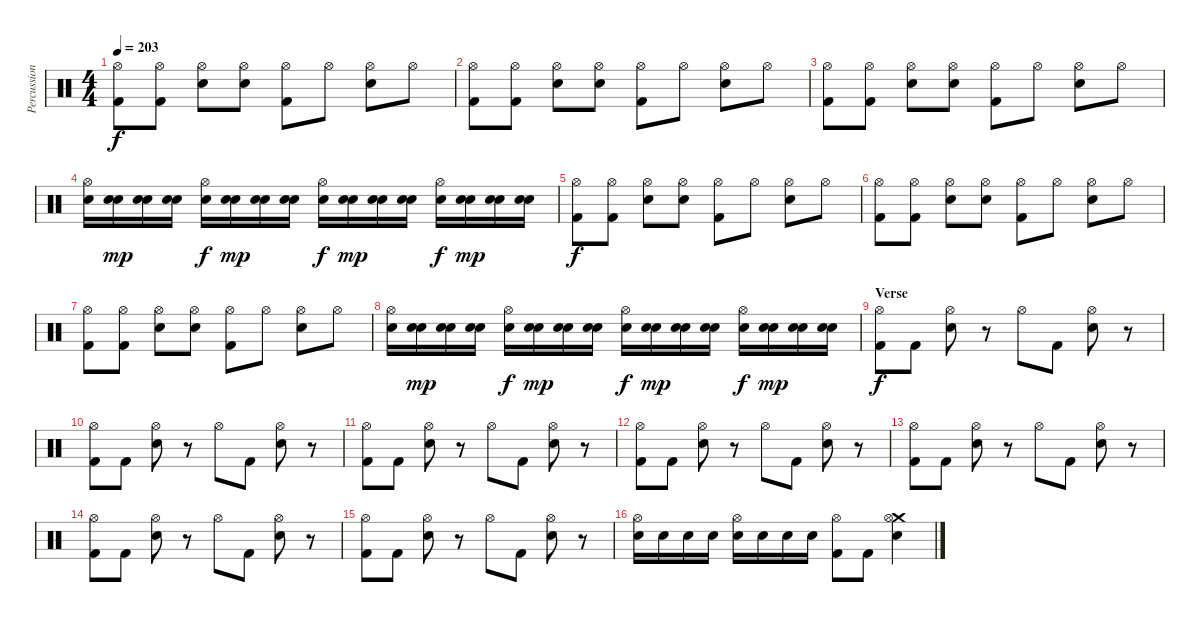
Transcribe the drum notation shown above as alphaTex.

\track ("Percussion" "Percussion") {instrument percussion}
\staff {score}
\articulation defaults
\ts (4 4)
\tempo 203
\clef neutral
\ks c
("Hi-Hat (open)" "Kick (hit) 2").8{dy f} ("Hi-Hat (open)" "Kick (hit) 2").8 ("Hi-Hat (open)" "Electric Snare (hit)").8 ("Hi-Hat (open)" "Electric Snare (hit)").8 ("Hi-Hat (open)" "Kick (hit) 2").8 "Hi-Hat (open)".8 ("Hi-Hat (open)" "Electric Snare (hit)").8 "Hi-Hat (open)".8 |
("Hi-Hat (open)" "Kick (hit) 2").8 ("Hi-Hat (open)" "Kick (hit) 2").8 ("Hi-Hat (open)" "Electric Snare (hit)").8 ("Hi-Hat (open)" "Electric Snare (hit)").8 ("Hi-Hat (open)" "Kick (hit) 2").8 "Hi-Hat (open)".8 ("Hi-Hat (open)" "Electric Snare (hit)").8 "Hi-Hat (open)".8 |
("Hi-Hat (open)" "Kick (hit) 2").8 ("Hi-Hat (open)" "Kick (hit) 2").8 ("Hi-Hat (open)" "Electric Snare (hit)").8 ("Hi-Hat (open)" "Electric Snare (hit)").8 ("Hi-Hat (open)" "Kick (hit) 2").8 "Hi-Hat (open)".8 ("Hi-Hat (open)" "Electric Snare (hit)").8 "Hi-Hat (open)".8 |
("Hi-Hat (open)" "Electric Snare (hit)").16 ("Snare (hit) 2" "Electric Snare (hit)").16{dy mp} ("Snare (hit) 2" "Electric Snare (hit)").16 ("Snare (hit) 2" "Electric Snare (hit)").16 ("Hi-Hat (open)" "Electric Snare (hit)").16{dy f} ("Electric Snare (hit)" "Snare (hit) 2").16{dy mp} ("Electric Snare (hit)" "Snare (hit) 2").16 ("Electric Snare (hit)" "Snare (hit) 2").16 ("Hi-Hat (open)" "Electric Snare (hit)").16{dy f} ("Electric Snare (hit)" "Snare (hit) 2").16{dy mp} ("Electric Snare (hit)" "Snare (hit) 2").16 ("Electric Snare (hit)" "Snare (hit) 2").16 ("Hi-Hat (open)" "Electric Snare (hit)").16{dy f} ("Electric Snare (hit)" "Snare (hit) 2").16{dy mp} ("Electric Snare (hit)" "Snare (hit) 2").16 ("Electric Snare (hit)" "Snare (hit) 2").16 |
("Hi-Hat (open)" "Kick (hit) 2").8{dy f} ("Hi-Hat (open)" "Kick (hit) 2").8 ("Hi-Hat (open)" "Electric Snare (hit)").8 ("Hi-Hat (open)" "Electric Snare (hit)").8 ("Hi-Hat (open)" "Kick (hit) 2").8 "Hi-Hat (open)".8 ("Hi-Hat (open)" "Electric Snare (hit)").8 "Hi-Hat (open)".8 |
("Hi-Hat (open)" "Kick (hit) 2").8 ("Hi-Hat (open)" "Kick (hit) 2").8 ("Hi-Hat (open)" "Electric Snare (hit)").8 ("Hi-Hat (open)" "Electric Snare (hit)").8 ("Hi-Hat (open)" "Kick (hit) 2").8 "Hi-Hat (open)".8 ("Hi-Hat (open)" "Electric Snare (hit)").8 "Hi-Hat (open)".8 |
("Hi-Hat (open)" "Kick (hit) 2").8 ("Hi-Hat (open)" "Kick (hit) 2").8 ("Hi-Hat (open)" "Electric Snare (hit)").8 ("Hi-Hat (open)" "Electric Snare (hit)").8 ("Hi-Hat (open)" "Kick (hit) 2").8 "Hi-Hat (open)".8 ("Hi-Hat (open)" "Electric Snare (hit)").8 "Hi-Hat (open)".8 |
("Hi-Hat (open)" "Electric Snare (hit)").16 ("Snare (hit) 2" "Electric Snare (hit)").16{dy mp} ("Snare (hit) 2" "Electric Snare (hit)").16 ("Snare (hit) 2" "Electric Snare (hit)").16 ("Hi-Hat (open)" "Electric Snare (hit)").16{dy f} ("Electric Snare (hit)" "Snare (hit) 2").16{dy mp} ("Electric Snare (hit)" "Snare (hit) 2").16 ("Electric Snare (hit)" "Snare (hit) 2").16 ("Hi-Hat (open)" "Electric Snare (hit)").16{dy f} ("Electric Snare (hit)" "Snare (hit) 2").16{dy mp} ("Electric Snare (hit)" "Snare (hit) 2").16 ("Electric Snare (hit)" "Snare (hit) 2").16 ("Hi-Hat (open)" "Electric Snare (hit)").16{dy f} ("Electric Snare (hit)" "Snare (hit) 2").16{dy mp} ("Electric Snare (hit)" "Snare (hit) 2").16 ("Electric Snare (hit)" "Snare (hit) 2").16 |
\section ("" "Verse")
("Hi-Hat (open)" "Kick (hit) 2").8{dy f} "Kick (hit) 2".8 ("Hi-Hat (open)" "Electric Snare (hit)").8 r.8 "Hi-Hat (open)".8 "Kick (hit) 2".8 ("Hi-Hat (open)" "Electric Snare (hit)").8 r.8 |
("Hi-Hat (open)" "Kick (hit) 2").8 "Kick (hit) 2".8 ("Hi-Hat (open)" "Electric Snare (hit)").8 r.8 "Hi-Hat (open)".8 "Kick (hit) 2".8 ("Hi-Hat (open)" "Electric Snare (hit)").8 r.8 |
("Hi-Hat (open)" "Kick (hit) 2").8 "Kick (hit) 2".8 ("Hi-Hat (open)" "Electric Snare (hit)").8 r.8 "Hi-Hat (open)".8 "Kick (hit) 2".8 ("Hi-Hat (open)" "Electric Snare (hit)").8 r.8 |
("Hi-Hat (open)" "Kick (hit) 2").8 "Kick (hit) 2".8 ("Hi-Hat (open)" "Electric Snare (hit)").8 r.8 "Hi-Hat (open)".8 "Kick (hit) 2".8 ("Hi-Hat (open)" "Electric Snare (hit)").8 r.8 |
("Hi-Hat (open)" "Kick (hit) 2").8 "Kick (hit) 2".8 ("Hi-Hat (open)" "Electric Snare (hit)").8 r.8 "Hi-Hat (open)".8 "Kick (hit) 2".8 ("Hi-Hat (open)" "Electric Snare (hit)").8 r.8 |
("Hi-Hat (open)" "Kick (hit) 2").8 "Kick (hit) 2".8 ("Hi-Hat (open)" "Electric Snare (hit)").8 r.8 "Hi-Hat (open)".8 "Kick (hit) 2".8 ("Hi-Hat (open)" "Electric Snare (hit)").8 r.8 |
("Hi-Hat (open)" "Kick (hit) 2").8 "Kick (hit) 2".8 ("Hi-Hat (open)" "Electric Snare (hit)").8 r.8 "Hi-Hat (open)".8 "Kick (hit) 2".8 ("Hi-Hat (open)" "Electric Snare (hit)").8 r.8 |
("Hi-Hat (open)" "Electric Snare (hit)").16 "Electric Snare (hit)".16 "Electric Snare (hit)".16 "Electric Snare (hit)".16 ("Hi-Hat (open)" "Electric Snare (hit)").16 "Electric Snare (hit)".16 "Electric Snare (hit)".16 "Electric Snare (hit)".16 ("Hi-Hat (open)" "Kick (hit) 2").8 "Kick (hit) 2".8 ("Crash medium (hit)" "Hi-Hat (open)" "Electric Snare (hit)").4
